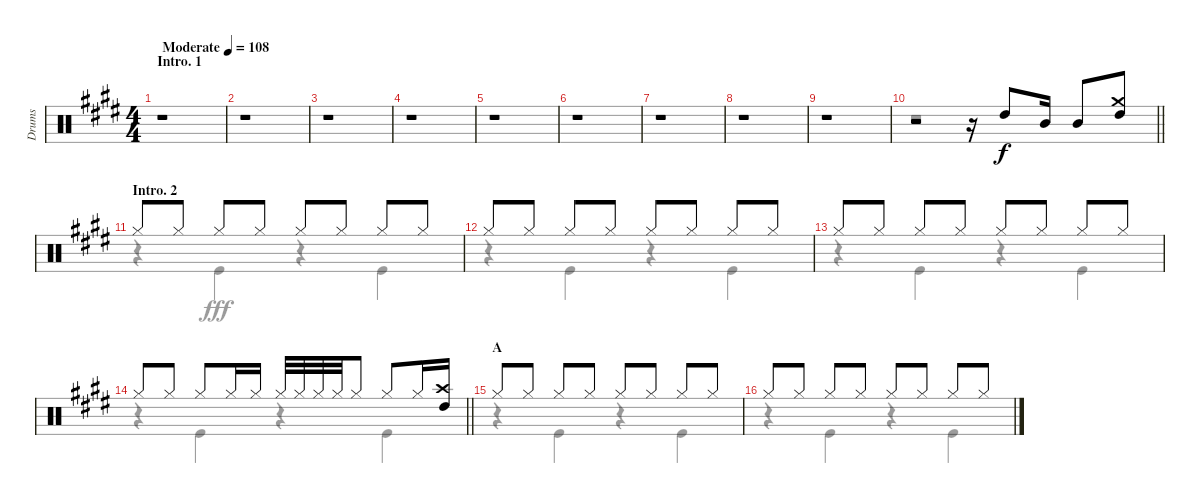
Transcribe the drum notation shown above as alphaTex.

\track ("Drums" "Drums") {instrument percussion}
\staff {score}
\articulation defaults
\voice
\ts (4 4)
\section ("" "Intro. 1")
\tempo (108 "Moderate")
\clef neutral
\ks e
r.1{dy f} |
r.1 |
r.1 |
r.1 |
r.1 |
r.1 |
r.1 |
r.1 |
r.1 |
\barLineRight lightlight
r.2 r.16 "High Tom (hit)".8 "Mid Tom (hit)".16 "Mid Tom (hit)".8 ("Crash medium (hit)" "High Tom (hit)").8 |
\section ("" "Intro. 2")
"Hi-Hat (closed)".8 "Hi-Hat (closed)".8 "Hi-Hat (closed)".8 "Hi-Hat (closed)".8 "Hi-Hat (closed)".8 "Hi-Hat (closed)".8 "Hi-Hat (closed)".8 "Hi-Hat (closed)".8 |
"Hi-Hat (closed)".8 "Hi-Hat (closed)".8 "Hi-Hat (closed)".8 "Hi-Hat (closed)".8 "Hi-Hat (closed)".8 "Hi-Hat (closed)".8 "Hi-Hat (closed)".8 "Hi-Hat (closed)".8 |
"Hi-Hat (closed)".8 "Hi-Hat (closed)".8 "Hi-Hat (closed)".8 "Hi-Hat (closed)".8 "Hi-Hat (closed)".8 "Hi-Hat (closed)".8 "Hi-Hat (closed)".8 "Hi-Hat (closed)".8 |
\barLineRight lightlight "Hi-Hat (closed)".8 "Hi-Hat (closed)".8 "Hi-Hat (closed)".8 "Hi-Hat (closed)".16 "Hi-Hat (closed)".16 "Hi-Hat (closed)".32 "Hi-Hat (closed)".32 "Hi-Hat (closed)".32 "Hi-Hat (closed)".32 "Hi-Hat (closed)".8 "Hi-Hat (closed)".8 "Hi-Hat (closed)".16
("Crash high (hit)" "High Tom (hit)").16 |
\section ("" "A")
"Hi-Hat (closed)".8 "Hi-Hat (closed)".8 "Hi-Hat (closed)".8 "Hi-Hat (closed)".8 "Hi-Hat (closed)".8 "Hi-Hat (closed)".8 "Hi-Hat (closed)".8 "Hi-Hat (closed)".8 |
"Hi-Hat (closed)".8 "Hi-Hat (closed)".8 "Hi-Hat (closed)".8 "Hi-Hat (closed)".8 "Hi-Hat (closed)".8 "Hi-Hat (closed)".8 "Hi-Hat (closed)".8 "Hi-Hat (closed)".8
\voice
\clef neutral
\ottava regular
\simile none
\ks e
r.1{dy fff} |
r.1 |
r.1 |
r.1 |
r.1 |
r.1 |
r.1 |
r.1 |
r.1 |
\barLineRight lightlight
r.1 |
r.4 "Kick (hit)".4 r.4 "Kick (hit)".4 |
r.4 "Kick (hit)".4 r.4 "Kick (hit)".4 |
r.4 "Kick (hit)".4 r.4 "Kick (hit)".4 |
\barLineRight lightlight
r.4 "Kick (hit)".4 r.4 "Kick (hit)".4 |
r.4 "Kick (hit)".4 r.4 "Kick (hit)".4 |
r.4 "Kick (hit)".4 r.4 "Kick (hit)".4
